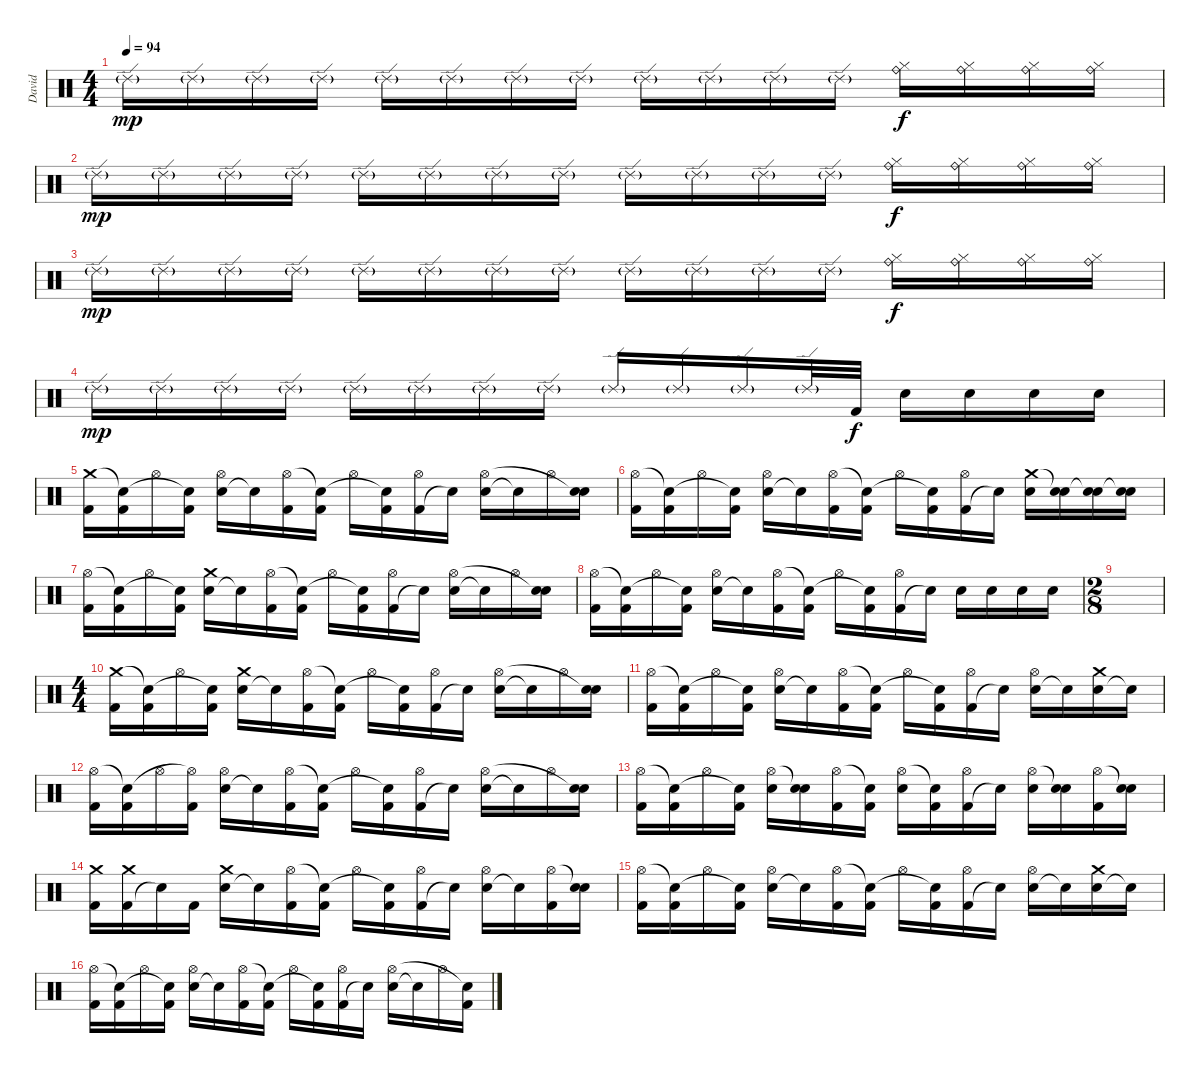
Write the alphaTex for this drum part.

\track ("David" "David") {instrument percussion}
\staff {score}
\articulation defaults
\ts (4 4)
\tempo 94
\clef neutral
\ks c "Ride (edge) 2"{g}.16{dy mp} "Ride (edge) 2"{g}.16 "Ride (edge) 2"{g}.16 "Ride (edge) 2"{g}.16 "Ride (edge) 2"{g}.16 "Ride (edge) 2"{g}.16 "Ride (edge) 2"{g}.16 "Ride (edge) 2"{g}.16 "Ride (edge) 2"{g}.16 "Ride (edge) 2"{g}.16 "Ride (edge) 2"{g}.16 "Ride (edge) 2"{g}.16
("Hi-Hat (closed)" "Ride (bell)").16{dy f} ("Hi-Hat (closed)" "Ride (bell)").16 ("Hi-Hat (closed)" "Ride (bell)").16 ("Hi-Hat (closed)" "Ride (bell)").16 |
"Ride (edge) 2"{g}.16{dy mp} "Ride (edge) 2"{g}.16 "Ride (edge) 2"{g}.16 "Ride (edge) 2"{g}.16 "Ride (edge) 2"{g}.16 "Ride (edge) 2"{g}.16 "Ride (edge) 2"{g}.16 "Ride (edge) 2"{g}.16 "Ride (edge) 2"{g}.16 "Ride (edge) 2"{g}.16 "Ride (edge) 2"{g}.16 "Ride (edge) 2"{g}.16 ("Hi-Hat (closed)" "Ride (bell)").16{dy f} ("Hi-Hat (closed)" "Ride (bell)").16 ("Hi-Hat (closed)" "Ride (bell)").16 ("Hi-Hat (closed)" "Ride (bell)").16 |
"Ride (edge) 2"{g}.16{dy mp} "Ride (edge) 2"{g}.16 "Ride (edge) 2"{g}.16 "Ride (edge) 2"{g}.16 "Ride (edge) 2"{g}.16 "Ride (edge) 2"{g}.16 "Ride (edge) 2"{g}.16 "Ride (edge) 2"{g}.16 "Ride (edge) 2"{g}.16 "Ride (edge) 2"{g}.16 "Ride (edge) 2"{g}.16 "Ride (edge) 2"{g}.16 ("Hi-Hat (closed)" "Ride (bell)").16{dy f} ("Hi-Hat (closed)" "Ride (bell)").16 ("Hi-Hat (closed)" "Ride (bell)").16 ("Hi-Hat (closed)" "Ride (bell)").16 |
"Ride (edge) 2"{g}.16{dy mp} "Ride (edge) 2"{g}.16 "Ride (edge) 2"{g}.16 "Ride (edge) 2"{g}.16 "Ride (edge) 2"{g}.16 "Ride (edge) 2"{g}.16 "Ride (edge) 2"{g}.16 "Ride (edge) 2"{g}.16 "Ride (edge) 2"{g}.16 "Ride (edge) 2"{g}.16 "Ride (edge) 2"{g}.16 "Ride (edge) 2"{g}.32 "Kick (hit) 2".32{dy f} "Electric Snare (hit)".16 "Electric Snare (hit)".16 "Electric Snare (hit)".16 "Electric Snare (hit)".16 |
("Kick (hit) 2" "Crash medium (hit)").16 ("Kick (hit) 2" "Snare (hit)"{t}).16 "Hi-Hat (open)".16 ("Kick (hit) 2" "Snare (hit)"{t}).16 ("Electric Snare (hit)" "Hi-Hat (open)").16 "Snare (hit)"{t}.16 ("Kick (hit) 2" "Hi-Hat (open)").16 ("Kick (hit) 2" "Snare (hit)"{t}).16 "Hi-Hat (open)".16 ("Kick (hit) 2" "Snare (hit)"{t}).16 ("Kick (hit) 2" "Hi-Hat (open)").16 "Snare (hit)"{t}.16 ("Electric Snare (hit)" "Hi-Hat (open)").16 "Snare (hit)"{t}.16 "Hi-Hat (open)".16 ("Electric Snare (hit)" "Snare (hit)"{t}).16 |
("Kick (hit) 2" "Hi-Hat (open)").16 ("Kick (hit) 2" "Snare (hit)"{t}).16 "Hi-Hat (open)".16 ("Kick (hit) 2" "Snare (hit)"{t}).16 ("Electric Snare (hit)" "Hi-Hat (open)").16 "Snare (hit)"{t}.16 ("Kick (hit) 2" "Hi-Hat (open)").16 ("Kick (hit) 2" "Snare (hit)"{t}).16 "Hi-Hat (open)".16 ("Kick (hit) 2" "Snare (hit)"{t}).16 ("Kick (hit) 2" "Hi-Hat (open)").16 "Snare (hit)"{t}.16 ("Electric Snare (hit)" "Crash medium (hit)").16 ("Electric Snare (hit)" "Snare (hit)"{t}).16 ("Electric Snare (hit)" "Snare (hit)"{t}).16 ("Electric Snare (hit)" "Snare (hit)"{t}).16 |
("Kick (hit) 2" "Hi-Hat (open)").16 ("Kick (hit) 2" "Snare (hit)"{t}).16 "Hi-Hat (open)".16 ("Kick (hit) 2" "Snare (hit)"{t}).16 ("Electric Snare (hit)" "Crash medium (hit)").16 "Snare (hit)"{t}.16 ("Kick (hit) 2" "Hi-Hat (open)").16 ("Kick (hit) 2" "Snare (hit)"{t}).16 "Hi-Hat (open)".16 ("Kick (hit) 2" "Snare (hit)"{t}).16 ("Kick (hit) 2" "Hi-Hat (open)").16 "Snare (hit)"{t}.16 ("Electric Snare (hit)" "Hi-Hat (open)").16 "Snare (hit)"{t}.16 "Hi-Hat (open)".16 ("Electric Snare (hit)" "Snare (hit)"{t}).16 |
("Kick (hit) 2" "Hi-Hat (open)").16 ("Kick (hit) 2" "Snare (hit)"{t}).16 "Hi-Hat (open)".16 ("Kick (hit) 2" "Snare (hit)"{t}).16 ("Electric Snare (hit)" "Hi-Hat (open)").16 "Snare (hit)"{t}.16 ("Kick (hit) 2" "Hi-Hat (open)").16 ("Kick (hit) 2" "Snare (hit)"{t}).16 "Hi-Hat (open)".16 ("Kick (hit) 2" "Snare (hit)"{t}).16 ("Kick (hit) 2" "Hi-Hat (open)").16 "Snare (hit)"{t}.16 "Electric Snare (hit)".16 "Electric Snare (hit)".16 "Electric Snare (hit)".16 "Electric Snare (hit)".16 |
\ts (2 8)
|
\ts (4 4)
("Kick (hit) 2" "Crash medium (hit)").16 ("Kick (hit) 2" "Snare (hit)"{t}).16 "Hi-Hat (open)".16 ("Kick (hit) 2" "Snare (hit)"{t}).16 ("Electric Snare (hit)" "Crash medium (hit)").16 "Snare (hit)"{t}.16 ("Kick (hit) 2" "Hi-Hat (open)").16 ("Kick (hit) 2" "Snare (hit)"{t}).16 "Hi-Hat (open)".16 ("Kick (hit) 2" "Snare (hit)"{t}).16 ("Kick (hit) 2" "Hi-Hat (open)").16 "Snare (hit)"{t}.16 ("Electric Snare (hit)" "Hi-Hat (open)").16 "Snare (hit)"{t}.16 "Hi-Hat (open)".16 ("Electric Snare (hit)" "Snare (hit)"{t}).16 |
("Kick (hit) 2" "Hi-Hat (open)").16 ("Kick (hit) 2" "Snare (hit)"{t}).16 "Hi-Hat (open)".16 ("Kick (hit) 2" "Snare (hit)"{t}).16 ("Electric Snare (hit)" "Hi-Hat (open)").16 "Snare (hit)"{t}.16 ("Kick (hit) 2" "Hi-Hat (open)").16 ("Kick (hit) 2" "Snare (hit)"{t}).16 "Hi-Hat (open)".16 ("Kick (hit) 2" "Snare (hit)"{t}).16 ("Kick (hit) 2" "Hi-Hat (open)").16 "Snare (hit)"{t}.16 ("Electric Snare (hit)" "Hi-Hat (open)").16 "Snare (hit)"{t}.16 ("Electric Snare (hit)" "Crash medium (hit)").16 "Snare (hit)"{t}.16 |
("Kick (hit) 2" "Hi-Hat (open)").16 ("Kick (hit) 2" "Snare (hit)"{t}).16 "Hi-Hat (open)".16 ("Kick (hit) 2" "Hi-Hat (open)"{t}).16 ("Electric Snare (hit)" "Hi-Hat (open)").16 "Snare (hit)"{t}.16 ("Kick (hit) 2" "Hi-Hat (open)").16 ("Kick (hit) 2" "Snare (hit)"{t}).16 "Hi-Hat (open)".16 ("Kick (hit) 2" "Snare (hit)"{t}).16 ("Kick (hit) 2" "Hi-Hat (open)").16 "Snare (hit)"{t}.16 ("Electric Snare (hit)" "Hi-Hat (open)").16 "Snare (hit)"{t}.16 "Hi-Hat (open)".16 ("Electric Snare (hit)" "Snare (hit)"{t}).16 |
("Kick (hit) 2" "Hi-Hat (open)").16 ("Kick (hit) 2" "Snare (hit)"{t}).16 "Hi-Hat (open)".16 ("Kick (hit) 2" "Snare (hit)"{t}).16 ("Electric Snare (hit)" "Hi-Hat (open)").16 ("Electric Snare (hit)" "Snare (hit)"{t}).16 ("Kick (hit) 2" "Hi-Hat (open)").16 ("Kick (hit) 2" "Snare (hit)"{t}).16 ("Electric Snare (hit)" "Hi-Hat (open)").16 ("Kick (hit) 2" "Snare (hit)"{t}).16 ("Kick (hit) 2" "Hi-Hat (open)").16 "Snare (hit)"{t}.16 ("Electric Snare (hit)" "Hi-Hat (open)").16 ("Electric Snare (hit)" "Snare (hit)"{t}).16 ("Kick (hit) 2" "Hi-Hat (open)").16 ("Electric Snare (hit)" "Snare (hit)"{t}).16 |
("Kick (hit) 2" "Crash medium (hit)").16 ("Kick (hit) 2" "Crash medium (hit)").16 "Snare (hit)"{t}.16 "Kick (hit) 2".16 ("Electric Snare (hit)" "Crash medium (hit)").16 "Snare (hit)"{t}.16 ("Kick (hit) 2" "Hi-Hat (open)").16 ("Kick (hit) 2" "Snare (hit)"{t}).16 "Hi-Hat (open)".16 ("Kick (hit) 2" "Snare (hit)"{t}).16 ("Kick (hit) 2" "Hi-Hat (open)").16 "Snare (hit)"{t}.16 ("Electric Snare (hit)" "Hi-Hat (open)").16 "Snare (hit)"{t}.16 ("Kick (hit) 2" "Hi-Hat (open)").16 ("Electric Snare (hit)" "Snare (hit)"{t}).16 |
("Kick (hit) 2" "Hi-Hat (open)").16 ("Kick (hit) 2" "Snare (hit)"{t}).16 "Hi-Hat (open)".16 ("Kick (hit) 2" "Snare (hit)"{t}).16 ("Electric Snare (hit)" "Hi-Hat (open)").16 "Snare (hit)"{t}.16 ("Kick (hit) 2" "Hi-Hat (open)").16 ("Kick (hit) 2" "Snare (hit)"{t}).16 "Hi-Hat (open)".16 ("Kick (hit) 2" "Snare (hit)"{t}).16 ("Kick (hit) 2" "Hi-Hat (open)").16 "Snare (hit)"{t}.16 ("Electric Snare (hit)" "Hi-Hat (open)").16 "Snare (hit)"{t}.16 ("Electric Snare (hit)" "Crash medium (hit)").16 "Snare (hit)"{t}.16 |
("Kick (hit) 2" "Hi-Hat (open)").16 ("Kick (hit) 2" "Snare (hit)"{t}).16 "Hi-Hat (open)".16 ("Kick (hit) 2" "Snare (hit)"{t}).16 ("Electric Snare (hit)" "Hi-Hat (open)").16 "Snare (hit)"{t}.16 ("Kick (hit) 2" "Hi-Hat (open)").16 ("Kick (hit) 2" "Snare (hit)"{t}).16 "Hi-Hat (open)".16 ("Kick (hit) 2" "Snare (hit)"{t}).16 ("Kick (hit) 2" "Hi-Hat (open)").16 "Snare (hit)"{t}.16 ("Electric Snare (hit)" "Hi-Hat (open)").16 "Snare (hit)"{t}.16 "Hi-Hat (open)".16 ("Kick (hit) 2" "Snare (hit)"{t}).16
